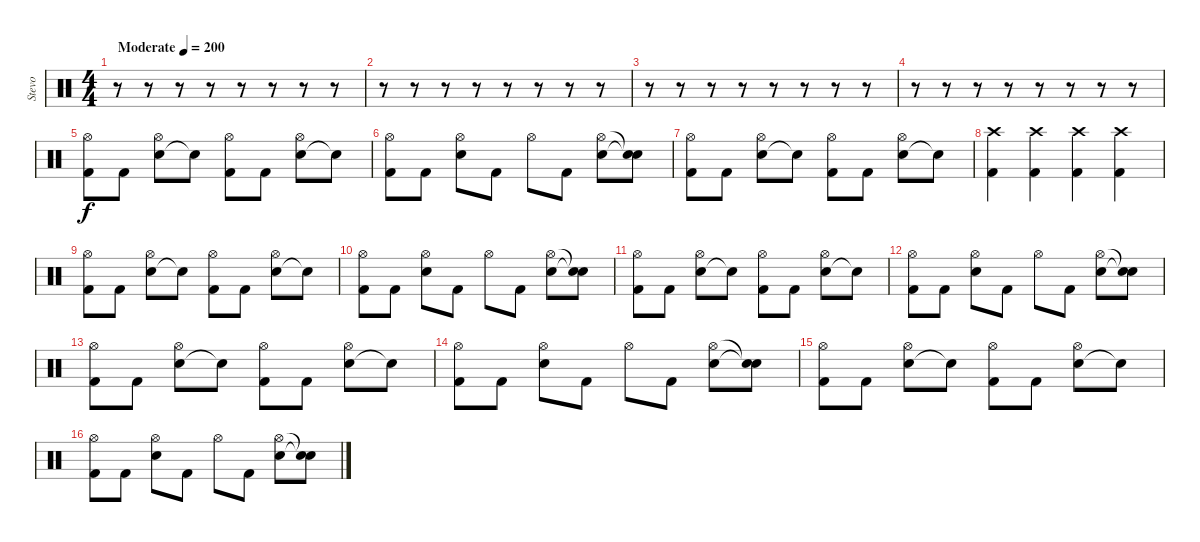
\track ("Stevo" "Stevo") {instrument percussion}
\staff {score}
\articulation defaults
\ts (4 4)
\tempo (200 "Moderate")
\clef neutral
\ks c
r.8{dy f} r.8 r.8 r.8 r.8 r.8 r.8 r.8 |
r.8 r.8 r.8 r.8 r.8 r.8 r.8 r.8 |
r.8 r.8 r.8 r.8 r.8 r.8 r.8 r.8 |
r.8 r.8 r.8 r.8 r.8 r.8 r.8 r.8 |
("Kick (hit) 2" "Hi-Hat (open)").8 "Kick (hit) 2".8 ("Snare (hit) 2" "Hi-Hat (open)").8 "Snare (hit)"{t}.8 ("Kick (hit) 2" "Hi-Hat (open)").8 "Kick (hit) 2".8 ("Snare (hit) 2" "Hi-Hat (open)").8 "Snare (hit)"{t}.8 |
("Kick (hit) 2" "Hi-Hat (open)").8 "Kick (hit) 2".8 ("Snare (hit) 2" "Hi-Hat (open)").8 "Kick (hit) 2".8 "Hi-Hat (open)".8 "Kick (hit) 2".8 ("Snare (hit) 2" "Hi-Hat (open)").8 ("Snare (hit)"{t} "Snare (hit)"{t}).8 |
("Kick (hit) 2" "Hi-Hat (open)").8 "Kick (hit) 2".8 ("Snare (hit) 2" "Hi-Hat (open)").8 "Snare (hit)"{t}.8 ("Kick (hit) 2" "Hi-Hat (open)").8 "Kick (hit) 2".8 ("Snare (hit) 2" "Hi-Hat (open)").8 "Snare (hit)"{t}.8 |
("Kick (hit) 2" "Crash high (hit)").4 ("Kick (hit) 2" "Crash high (hit)").4 ("Kick (hit) 2" "Crash high (hit)").4 ("Kick (hit) 2" "Crash high (hit)").4 |
("Kick (hit) 2" "Hi-Hat (open)").8 "Kick (hit) 2".8 ("Snare (hit) 2" "Hi-Hat (open)").8 "Snare (hit)"{t}.8 ("Kick (hit) 2" "Hi-Hat (open)").8 "Kick (hit) 2".8 ("Snare (hit) 2" "Hi-Hat (open)").8 "Snare (hit)"{t}.8 |
("Kick (hit) 2" "Hi-Hat (open)").8 "Kick (hit) 2".8 ("Snare (hit) 2" "Hi-Hat (open)").8 "Kick (hit) 2".8 "Hi-Hat (open)".8 "Kick (hit) 2".8 ("Snare (hit) 2" "Hi-Hat (open)").8 ("Snare (hit)"{t} "Snare (hit)"{t}).8 |
("Kick (hit) 2" "Hi-Hat (open)").8 "Kick (hit) 2".8 ("Snare (hit) 2" "Hi-Hat (open)").8 "Snare (hit)"{t}.8 ("Kick (hit) 2" "Hi-Hat (open)").8 "Kick (hit) 2".8 ("Snare (hit) 2" "Hi-Hat (open)").8 "Snare (hit)"{t}.8 |
("Kick (hit) 2" "Hi-Hat (open)").8 "Kick (hit) 2".8 ("Snare (hit) 2" "Hi-Hat (open)").8 "Kick (hit) 2".8 "Hi-Hat (open)".8 "Kick (hit) 2".8 ("Snare (hit) 2" "Hi-Hat (open)").8 ("Snare (hit)"{t} "Snare (hit)"{t}).8 |
("Kick (hit) 2" "Hi-Hat (open)").8 "Kick (hit) 2".8 ("Snare (hit) 2" "Hi-Hat (open)").8 "Snare (hit)"{t}.8 ("Kick (hit) 2" "Hi-Hat (open)").8 "Kick (hit) 2".8 ("Snare (hit) 2" "Hi-Hat (open)").8 "Snare (hit)"{t}.8 |
("Kick (hit) 2" "Hi-Hat (open)").8 "Kick (hit) 2".8 ("Snare (hit) 2" "Hi-Hat (open)").8 "Kick (hit) 2".8 "Hi-Hat (open)".8 "Kick (hit) 2".8 ("Snare (hit) 2" "Hi-Hat (open)").8 ("Snare (hit)"{t} "Snare (hit)"{t}).8 |
("Kick (hit) 2" "Hi-Hat (open)").8 "Kick (hit) 2".8 ("Snare (hit) 2" "Hi-Hat (open)").8 "Snare (hit)"{t}.8 ("Kick (hit) 2" "Hi-Hat (open)").8 "Kick (hit) 2".8 ("Snare (hit) 2" "Hi-Hat (open)").8 "Snare (hit)"{t}.8 |
("Kick (hit) 2" "Hi-Hat (open)").8 "Kick (hit) 2".8 ("Snare (hit) 2" "Hi-Hat (open)").8 "Kick (hit) 2".8 "Hi-Hat (open)".8 "Kick (hit) 2".8 ("Snare (hit) 2" "Hi-Hat (open)").8 ("Snare (hit)"{t} "Snare (hit)"{t}).8
